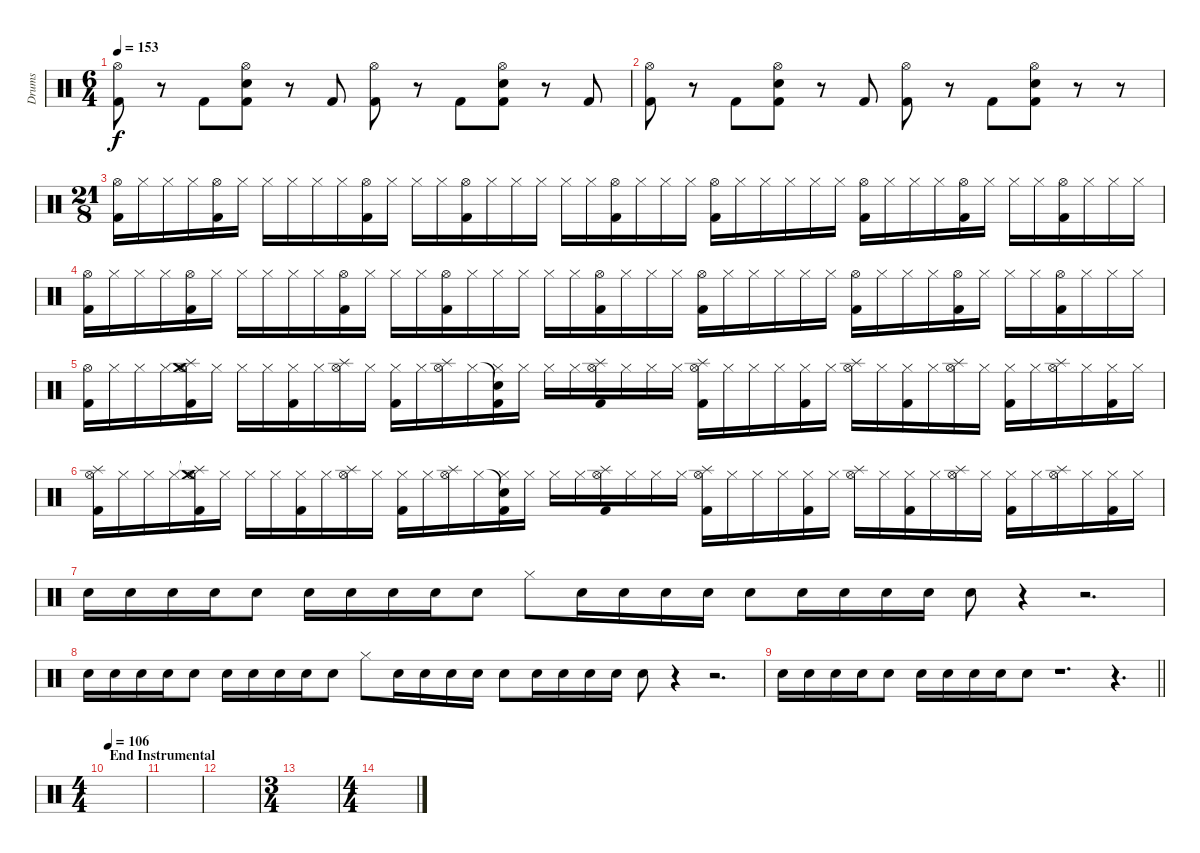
\track ("Drums" "Drums") {instrument percussion}
\staff {score}
\articulation defaults
\ts (6 4)
\tempo 153
\clef neutral
\ks c
("Hi-Hat (open)" "Kick (hit) 2").8{dy f} r.8 "Kick (hit) 2".8 ("Hi-Hat (open)" "Electric Snare (hit)" "Kick (hit) 2").8 r.8 "Kick (hit) 2".8 ("Hi-Hat (open)" "Kick (hit) 2").8 r.8 "Kick (hit) 2".8 ("Hi-Hat (open)" "Electric Snare (hit)" "Kick (hit) 2").8 r.8 "Kick (hit) 2".8 |
("Hi-Hat (open)" "Kick (hit) 2").8 r.8 "Kick (hit) 2".8 ("Hi-Hat (open)" "Electric Snare (hit)" "Kick (hit) 2").8 r.8 "Kick (hit) 2".8 ("Hi-Hat (open)" "Kick (hit) 2").8 r.8 "Kick (hit) 2".8 ("Hi-Hat (open)" "Electric Snare (hit)" "Kick (hit) 2").8 r.8 r.8 |
\ts (21 8)
("Hi-Hat (open)" "Kick (hit) 2").16 "Hi-Hat (closed)".16 "Hi-Hat (closed)".16 "Hi-Hat (closed)".16 ("Hi-Hat (open)" "Kick (hit) 2").16 "Hi-Hat (closed)".16 "Hi-Hat (closed)".16 "Hi-Hat (closed)".16 "Hi-Hat (closed)".16 "Hi-Hat (closed)".16 ("Hi-Hat (open)" "Kick (hit) 2").16 "Hi-Hat (closed)".16 "Hi-Hat (closed)".16 "Hi-Hat (closed)".16 ("Hi-Hat (open)" "Kick (hit) 2").16 "Hi-Hat (closed)".16 "Hi-Hat (closed)".16 "Hi-Hat (closed)".16 "Hi-Hat (closed)".16 "Hi-Hat (closed)".16 ("Hi-Hat (open)" "Kick (hit) 2").16 "Hi-Hat (closed)".16 "Hi-Hat (closed)".16 "Hi-Hat (closed)".16 ("Hi-Hat (open)" "Kick (hit) 2").16 "Hi-Hat (closed)".16 "Hi-Hat (closed)".16 "Hi-Hat (closed)".16 "Hi-Hat (closed)".16 "Hi-Hat (closed)".16 ("Hi-Hat (open)" "Kick (hit) 2").16 "Hi-Hat (closed)".16 "Hi-Hat (closed)".16 "Hi-Hat (closed)".16 ("Hi-Hat (open)" "Kick (hit) 2").16 "Hi-Hat (closed)".16 "Hi-Hat (closed)".16 "Hi-Hat (closed)".16 ("Hi-Hat (open)" "Kick (hit) 2").16 "Hi-Hat (closed)".16 "Hi-Hat (closed)".16 "Hi-Hat (closed)".16 |
("Hi-Hat (open)" "Kick (hit) 2").16 "Hi-Hat (closed)".16 "Hi-Hat (closed)".16 "Hi-Hat (closed)".16 ("Hi-Hat (open)" "Kick (hit) 2").16 "Hi-Hat (closed)".16 "Hi-Hat (closed)".16 "Hi-Hat (closed)".16 "Hi-Hat (closed)".16 "Hi-Hat (closed)".16 ("Hi-Hat (open)" "Kick (hit) 2").16 "Hi-Hat (closed)".16 "Hi-Hat (closed)".16 "Hi-Hat (closed)".16 ("Hi-Hat (open)" "Kick (hit) 2").16 "Hi-Hat (closed)".16 "Hi-Hat (closed)".16 "Hi-Hat (closed)".16 "Hi-Hat (closed)".16 "Hi-Hat (closed)".16 ("Hi-Hat (open)" "Kick (hit) 2").16 "Hi-Hat (closed)".16 "Hi-Hat (closed)".16 "Hi-Hat (closed)".16 ("Hi-Hat (open)" "Kick (hit) 2").16 "Hi-Hat (closed)".16 "Hi-Hat (closed)".16 "Hi-Hat (closed)".16 "Hi-Hat (closed)".16 "Hi-Hat (closed)".16 ("Hi-Hat (open)" "Kick (hit) 2").16 "Hi-Hat (closed)".16 "Hi-Hat (closed)".16 "Hi-Hat (closed)".16 ("Hi-Hat (open)" "Kick (hit) 2").16 "Hi-Hat (closed)".16 "Hi-Hat (closed)".16 "Hi-Hat (closed)".16 ("Hi-Hat (open)" "Kick (hit) 2").16 "Hi-Hat (closed)".16 "Hi-Hat (closed)".16 "Hi-Hat (closed)".16 |
("Hi-Hat (open)" "Kick (hit) 2").16 "Hi-Hat (closed)".16 "Hi-Hat (closed)".16 "Hi-Hat (closed)".16 ("Crash medium (hit)" "Splash (hit)" "Hi-Hat (open)" "Kick (hit) 2").16 "Hi-Hat (closed)".16 "Hi-Hat (closed)".16 "Hi-Hat (closed)".16 ("Hi-Hat (closed)" "Kick (hit) 2").16 "Hi-Hat (closed)".16 ("Splash (hit)" "Hi-Hat (open)").16 "Hi-Hat (closed)".16 ("Hi-Hat (closed)" "Kick (hit) 2").16 "Hi-Hat (closed)".16 ("Splash (hit)" "Hi-Hat (open)").16 "Hi-Hat (closed)".16 ("Snare (hit)"{t} "Hi-Hat (closed)" "Kick (hit) 2").16 "Hi-Hat (closed)".16 "Hi-Hat (closed)".16 "Hi-Hat (closed)".16 ("Splash (hit)" "Hi-Hat (open)" "Kick (hit) 2").16 "Hi-Hat (closed)".16 "Hi-Hat (closed)".16 "Hi-Hat (closed)".16 ("Splash (hit)" "Hi-Hat (open)" "Kick (hit) 2").16 "Hi-Hat (closed)".16 "Hi-Hat (closed)".16 "Hi-Hat (closed)".16 ("Hi-Hat (closed)" "Kick (hit) 2").16 "Hi-Hat (closed)".16 ("Splash (hit)" "Hi-Hat (open)").16 "Hi-Hat (closed)".16 ("Hi-Hat (closed)" "Kick (hit) 2").16 "Hi-Hat (closed)".16 ("Splash (hit)" "Hi-Hat (open)").16 "Hi-Hat (closed)".16 ("Hi-Hat (closed)" "Kick (hit) 2").16 "Hi-Hat (closed)".16 ("Splash (hit)" "Hi-Hat (open)").16 "Hi-Hat (closed)".16 ("Hi-Hat (closed)" "Kick (hit) 2").16 "Hi-Hat (closed)".16 |
("Splash (hit)" "Hi-Hat (open)" "Kick (hit) 2").16 "Hi-Hat (closed)".16 "Hi-Hat (closed)".16 "Hi-Hat (closed)".16 ("Crash medium (hit)"{t} "Splash (hit)" "Hi-Hat (open)" "Kick (hit) 2").16 "Hi-Hat (closed)".16 "Hi-Hat (closed)".16 "Hi-Hat (closed)".16 ("Hi-Hat (closed)" "Kick (hit) 2").16 "Hi-Hat (closed)".16 ("Splash (hit)" "Hi-Hat (open)").16 "Hi-Hat (closed)".16 ("Hi-Hat (closed)" "Kick (hit) 2").16 "Hi-Hat (closed)".16 ("Splash (hit)" "Hi-Hat (open)").16 "Hi-Hat (closed)".16 ("Snare (hit)"{t} "Hi-Hat (closed)" "Kick (hit) 2").16 "Hi-Hat (closed)".16 "Hi-Hat (closed)".16 "Hi-Hat (closed)".16 ("Splash (hit)" "Hi-Hat (open)" "Kick (hit) 2").16 "Hi-Hat (closed)".16 "Hi-Hat (closed)".16 "Hi-Hat (closed)".16 ("Splash (hit)" "Hi-Hat (open)" "Kick (hit) 2").16 "Hi-Hat (closed)".16 "Hi-Hat (closed)".16 "Hi-Hat (closed)".16 ("Hi-Hat (closed)" "Kick (hit) 2").16 "Hi-Hat (closed)".16 ("Splash (hit)" "Hi-Hat (open)").16 "Hi-Hat (closed)".16 ("Hi-Hat (closed)" "Kick (hit) 2").16 "Hi-Hat (closed)".16 ("Splash (hit)" "Hi-Hat (open)").16 "Hi-Hat (closed)".16 ("Hi-Hat (closed)" "Kick (hit) 2").16 "Hi-Hat (closed)".16 ("Splash (hit)" "Hi-Hat (open)").16 "Hi-Hat (closed)".16 ("Hi-Hat (closed)" "Kick (hit) 2").16 "Hi-Hat (closed)".16 |
"Electric Snare (hit)".16 "Electric Snare (hit)".16 "Electric Snare (hit)".16 "Electric Snare (hit)".16 "Electric Snare (hit)".8 "Electric Snare (hit)".16 "Electric Snare (hit)".16 "Electric Snare (hit)".16 "Electric Snare (hit)".16 "Electric Snare (hit)".8 "Hi-Hat (closed)".8 "Electric Snare (hit)".16 "Electric Snare (hit)".16 "Electric Snare (hit)".16 "Electric Snare (hit)".16 "Electric Snare (hit)".8 "Electric Snare (hit)".16 "Electric Snare (hit)".16 "Electric Snare (hit)".16 "Electric Snare (hit)".16 "Electric Snare (hit)".8 r.4 r.2{d} |
"Electric Snare (hit)".16 "Electric Snare (hit)".16 "Electric Snare (hit)".16 "Electric Snare (hit)".16 "Electric Snare (hit)".8 "Electric Snare (hit)".16 "Electric Snare (hit)".16 "Electric Snare (hit)".16 "Electric Snare (hit)".16 "Electric Snare (hit)".8 "Hi-Hat (closed)".8 "Electric Snare (hit)".16 "Electric Snare (hit)".16 "Electric Snare (hit)".16 "Electric Snare (hit)".16 "Electric Snare (hit)".8 "Electric Snare (hit)".16 "Electric Snare (hit)".16 "Electric Snare (hit)".16 "Electric Snare (hit)".16 "Electric Snare (hit)".8 r.4 r.2{d} |
\barLineRight lightlight "Electric Snare (hit)".16 "Electric Snare (hit)".16 "Electric Snare (hit)".16 "Electric Snare (hit)".16 "Electric Snare (hit)".8 "Electric Snare (hit)".16 "Electric Snare (hit)".16 "Electric Snare (hit)".16 "Electric Snare (hit)".16 "Electric Snare (hit)".8
r.1{d} r.4{d} |
\ts (4 4)
\section ("" "End Instrumental")
\tempo 106
|
|
|
\ts (3 4)
|
\ts (4 4)
